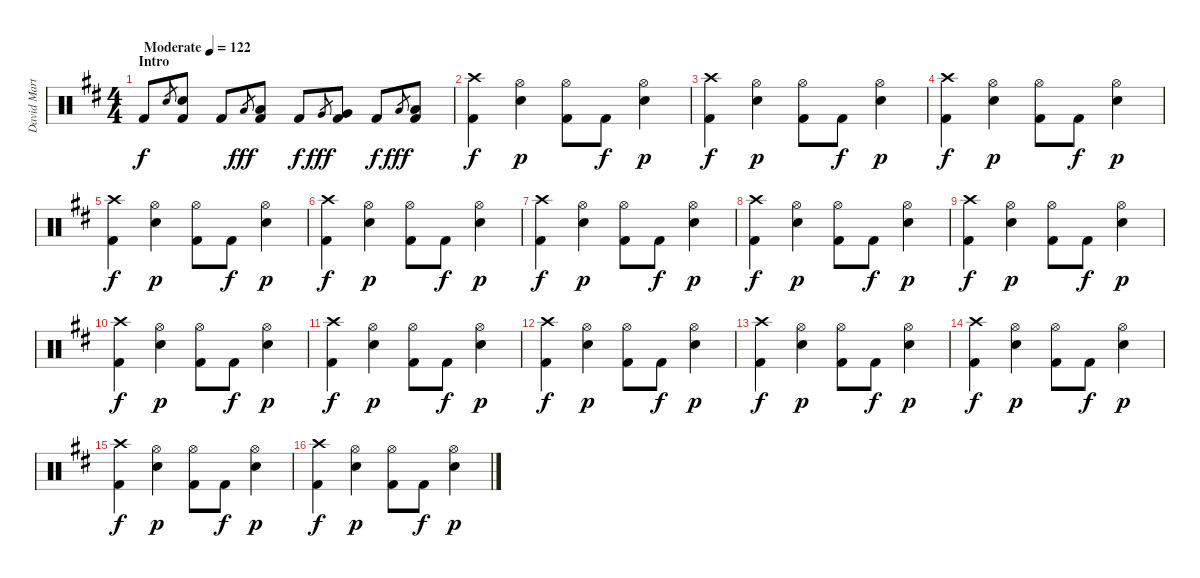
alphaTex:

\track ("David Martinez" "David Mart") {instrument percussion}
\staff {score}
\articulation defaults
\ts (4 4)
\section ("" "Intro")
\tempo (122 "Moderate")
\clef neutral
\ks d "Kick (hit) 2".8{dy f} "Snare (hit) 2".8{gr}
("Kick (hit) 2" "Snare (hit) 2").8 "Kick (hit) 2".8 "Low Floor Tom (hit)".8{gr dy fff} ("Kick (hit) 2" "Low Floor Tom (hit)").8 "Kick (hit) 2".8{dy f} "Very Low Tom (hit)".8{gr dy fff} ("Kick (hit) 2" "Very Low Tom (hit)").8 "Kick (hit) 2".8{dy f} "Low Tom (hit)".8{gr dy fff} ("Kick (hit) 2" "Low Tom (hit)").8 |
("Crash high (hit)" "Kick (hit) 2").4{dy f} ("Hi-Hat (open)" "Snare (hit) 2").4{dy p} ("Hi-Hat (open)" "Kick (hit) 2").8 "Kick (hit) 2".8{dy f} ("Hi-Hat (open)" "Snare (hit) 2").4{dy p} |
("Crash high (hit)" "Kick (hit) 2").4{dy f} ("Hi-Hat (open)" "Snare (hit) 2").4{dy p} ("Hi-Hat (open)" "Kick (hit) 2").8 "Kick (hit) 2".8{dy f} ("Hi-Hat (open)" "Snare (hit) 2").4{dy p} |
("Crash high (hit)" "Kick (hit) 2").4{dy f} ("Hi-Hat (open)" "Snare (hit) 2").4{dy p} ("Hi-Hat (open)" "Kick (hit) 2").8 "Kick (hit) 2".8{dy f} ("Hi-Hat (open)" "Snare (hit) 2").4{dy p} |
("Crash high (hit)" "Kick (hit) 2").4{dy f} ("Hi-Hat (open)" "Snare (hit) 2").4{dy p} ("Hi-Hat (open)" "Kick (hit) 2").8 "Kick (hit) 2".8{dy f} ("Hi-Hat (open)" "Snare (hit) 2").4{dy p} |
("Crash high (hit)" "Kick (hit) 2").4{dy f} ("Hi-Hat (open)" "Snare (hit) 2").4{dy p} ("Hi-Hat (open)" "Kick (hit) 2").8 "Kick (hit) 2".8{dy f} ("Hi-Hat (open)" "Snare (hit) 2").4{dy p} |
("Crash high (hit)" "Kick (hit) 2").4{dy f} ("Hi-Hat (open)" "Snare (hit) 2").4{dy p} ("Hi-Hat (open)" "Kick (hit) 2").8 "Kick (hit) 2".8{dy f} ("Hi-Hat (open)" "Snare (hit) 2").4{dy p} |
("Crash high (hit)" "Kick (hit) 2").4{dy f} ("Hi-Hat (open)" "Snare (hit) 2").4{dy p} ("Hi-Hat (open)" "Kick (hit) 2").8 "Kick (hit) 2".8{dy f} ("Hi-Hat (open)" "Snare (hit) 2").4{dy p} |
("Crash high (hit)" "Kick (hit) 2").4{dy f} ("Hi-Hat (open)" "Snare (hit) 2").4{dy p} ("Hi-Hat (open)" "Kick (hit) 2").8 "Kick (hit) 2".8{dy f} ("Hi-Hat (open)" "Snare (hit) 2").4{dy p} |
("Crash high (hit)" "Kick (hit) 2").4{dy f} ("Hi-Hat (open)" "Snare (hit) 2").4{dy p} ("Hi-Hat (open)" "Kick (hit) 2").8 "Kick (hit) 2".8{dy f} ("Hi-Hat (open)" "Snare (hit) 2").4{dy p} |
("Crash high (hit)" "Kick (hit) 2").4{dy f} ("Hi-Hat (open)" "Snare (hit) 2").4{dy p} ("Hi-Hat (open)" "Kick (hit) 2").8 "Kick (hit) 2".8{dy f} ("Hi-Hat (open)" "Snare (hit) 2").4{dy p} |
("Crash high (hit)" "Kick (hit) 2").4{dy f} ("Hi-Hat (open)" "Snare (hit) 2").4{dy p} ("Hi-Hat (open)" "Kick (hit) 2").8 "Kick (hit) 2".8{dy f} ("Hi-Hat (open)" "Snare (hit) 2").4{dy p} |
("Crash high (hit)" "Kick (hit) 2").4{dy f} ("Hi-Hat (open)" "Snare (hit) 2").4{dy p} ("Hi-Hat (open)" "Kick (hit) 2").8 "Kick (hit) 2".8{dy f} ("Hi-Hat (open)" "Snare (hit) 2").4{dy p} |
("Crash high (hit)" "Kick (hit) 2").4{dy f} ("Hi-Hat (open)" "Snare (hit) 2").4{dy p} ("Hi-Hat (open)" "Kick (hit) 2").8 "Kick (hit) 2".8{dy f} ("Hi-Hat (open)" "Snare (hit) 2").4{dy p} |
("Crash high (hit)" "Kick (hit) 2").4{dy f} ("Hi-Hat (open)" "Snare (hit) 2").4{dy p} ("Hi-Hat (open)" "Kick (hit) 2").8 "Kick (hit) 2".8{dy f} ("Hi-Hat (open)" "Snare (hit) 2").4{dy p} |
("Crash high (hit)" "Kick (hit) 2").4{dy f} ("Hi-Hat (open)" "Snare (hit) 2").4{dy p} ("Hi-Hat (open)" "Kick (hit) 2").8 "Kick (hit) 2".8{dy f} ("Hi-Hat (open)" "Snare (hit) 2").4{dy p}
